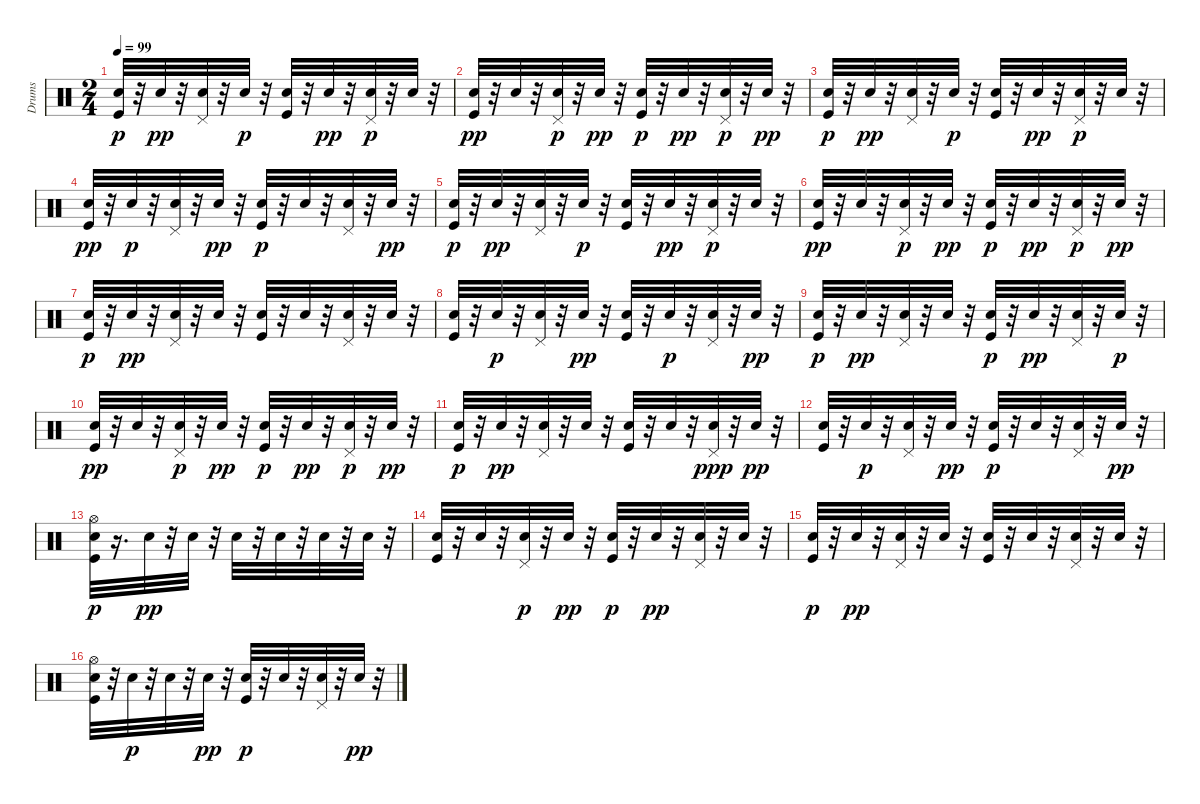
\track ("Drums" "Drums") {instrument percussion}
\staff {score}
\articulation defaults
\ts (2 4)
\tempo 99
\clef neutral
\ks c
("Hand Clap (hit)" "Kick (hit)").32{dy p} r.32 "Snare (hit) 2".32{dy pp} r.32 ("Pedal Hi-Hat (hit)" "Snare (hit) 2").32 r.32 "Snare (hit) 2".32{dy p} r.32 ("Hand Clap (hit)" "Kick (hit)").32 r.32 "Hand Clap (hit)".32{dy pp} r.32 ("Pedal Hi-Hat (hit)" "Snare (hit) 2").32{dy p} r.32 "Snare (hit) 2".32 r.32 |
("Kick (hit)" "Hand Clap (hit)").32{dy pp} r.32 "Snare (hit) 2".32 r.32 ("Pedal Hi-Hat (hit)" "Snare (hit) 2").32{dy p} r.32 "Snare (hit) 2".32{dy pp} r.32 ("Hand Clap (hit)" "Kick (hit)").32{dy p} r.32 "Snare (hit) 2".32{dy pp} r.32 ("Pedal Hi-Hat (hit)" "Snare (hit) 2").32{dy p} r.32 "Snare (hit) 2".32{dy pp} r.32 |
("Hand Clap (hit)" "Kick (hit)").32{dy p} r.32 "Snare (hit) 2".32{dy pp} r.32 ("Pedal Hi-Hat (hit)" "Snare (hit) 2").32 r.32 "Snare (hit) 2".32{dy p} r.32 ("Hand Clap (hit)" "Kick (hit)").32 r.32 "Hand Clap (hit)".32{dy pp} r.32 ("Pedal Hi-Hat (hit)" "Snare (hit) 2").32{dy p} r.32 "Snare (hit) 2".32 r.32 |
("Kick (hit)" "Hand Clap (hit)").32{dy pp} r.32 "Snare (hit) 2".32{dy p} r.32 ("Pedal Hi-Hat (hit)" "Snare (hit) 2").32 r.32 "Snare (hit) 2".32{dy pp} r.32 ("Hand Clap (hit)" "Kick (hit)").32{dy p} r.32 "Snare (hit) 2".32 r.32 ("Pedal Hi-Hat (hit)" "Snare (hit) 2").32 r.32 "Hand Clap (hit)".32{dy pp} r.32 |
("Hand Clap (hit)" "Kick (hit)").32{dy p} r.32 "Snare (hit) 2".32{dy pp} r.32 ("Pedal Hi-Hat (hit)" "Snare (hit) 2").32 r.32 "Snare (hit) 2".32{dy p} r.32 ("Hand Clap (hit)" "Kick (hit)").32 r.32 "Hand Clap (hit)".32{dy pp} r.32 ("Pedal Hi-Hat (hit)" "Snare (hit) 2").32{dy p} r.32 "Snare (hit) 2".32 r.32 |
("Kick (hit)" "Hand Clap (hit)").32{dy pp} r.32 "Snare (hit) 2".32 r.32 ("Pedal Hi-Hat (hit)" "Snare (hit) 2").32{dy p} r.32 "Snare (hit) 2".32{dy pp} r.32 ("Hand Clap (hit)" "Kick (hit)").32{dy p} r.32 "Snare (hit) 2".32{dy pp} r.32 ("Pedal Hi-Hat (hit)" "Snare (hit) 2").32{dy p} r.32 "Snare (hit) 2".32{dy pp} r.32 |
("Hand Clap (hit)" "Kick (hit)").32{dy p} r.32 "Snare (hit) 2".32{dy pp} r.32 ("Pedal Hi-Hat (hit)" "Snare (hit) 2").32 r.32 "Hand Clap (hit)".32 r.32 ("Kick (hit)" "Hand Clap (hit)").32 r.32 "Snare (hit) 2".32 r.32 ("Hand Clap (hit)" "Pedal Hi-Hat (hit)").32 r.32 "Hand Clap (hit)".32 r.32 |
("Kick (hit)" "Hand Clap (hit)").32 r.32 "Snare (hit) 2".32{dy p} r.32 ("Pedal Hi-Hat (hit)" "Snare (hit) 2").32 r.32 "Hand Clap (hit)".32{dy pp} r.32 ("Kick (hit)" "Snare (hit) 2").32 r.32 "Snare (hit) 2".32{dy p} r.32 ("Pedal Hi-Hat (hit)" "Snare (hit) 2").32 r.32 "Hand Clap (hit)".32{dy pp} r.32 |
("Hand Clap (hit)" "Kick (hit)").32{dy p} r.32 "Snare (hit) 2".32{dy pp} r.32 ("Pedal Hi-Hat (hit)" "Snare (hit) 2").32 r.32 "Hand Clap (hit)".32 r.32 ("Hand Clap (hit)" "Kick (hit)").32{dy p} r.32 "Snare (hit) 2".32{dy pp} r.32 ("Pedal Hi-Hat (hit)" "Hand Clap (hit)").32 r.32 "Snare (hit) 2".32{dy p} r.32 |
("Kick (hit)" "Hand Clap (hit)").32{dy pp} r.32 "Snare (hit) 2".32 r.32 ("Pedal Hi-Hat (hit)" "Snare (hit) 2").32{dy p} r.32 "Snare (hit) 2".32{dy pp} r.32 ("Hand Clap (hit)" "Kick (hit)").32{dy p} r.32 "Snare (hit) 2".32{dy pp} r.32 ("Pedal Hi-Hat (hit)" "Snare (hit) 2").32{dy p} r.32 "Snare (hit) 2".32{dy pp} r.32 |
("Hand Clap (hit)" "Kick (hit)").32{dy p} r.32 "Snare (hit) 2".32{dy pp} r.32 ("Pedal Hi-Hat (hit)" "Snare (hit) 2").32 r.32 "Hand Clap (hit)".32 r.32 ("Kick (hit)" "Hand Clap (hit)").32 r.32 "Snare (hit) 2".32 r.32 ("Hand Clap (hit)" "Pedal Hi-Hat (hit)").32{dy ppp} r.32 "Snare (hit) 2".32{dy pp} r.32 |
("Kick (hit)" "Hand Clap (hit)").32 r.32 "Snare (hit) 2".32{dy p} r.32 ("Pedal Hi-Hat (hit)" "Snare (hit) 2").32 r.32 "Snare (hit) 2".32{dy pp} r.32 ("Hand Clap (hit)" "Kick (hit)").32{dy p} r.32 "Snare (hit) 2".32 r.32 ("Pedal Hi-Hat (hit)" "Snare (hit) 2").32 r.32 "Snare (hit) 2".32{dy pp} r.32 |
("Hand Clap (hit)" "Hi-Hat (open)" "Kick (hit)").32{dy p} r.16{d} "Snare (hit) 2".32{dy pp} r.32 "Hand Clap (hit)".32 r.32 "Hand Clap (hit)".32 r.32 "Snare (hit) 2".32 r.32 "Hand Clap (hit)".32 r.32 "Hand Clap (hit)".32 r.32 |
("Kick (hit)" "Hand Clap (hit)").32 r.32 "Snare (hit) 2".32 r.32 ("Pedal Hi-Hat (hit)" "Snare (hit) 2").32{dy p} r.32 "Hand Clap (hit)".32{dy pp} r.32 ("Hand Clap (hit)" "Kick (hit)").32{dy p} r.32 "Snare (hit) 2".32{dy pp} r.32 ("Pedal Hi-Hat (hit)" "Hand Clap (hit)").32 r.32 "Snare (hit) 2".32 r.32 |
("Hand Clap (hit)" "Kick (hit)").32{dy p} r.32 "Snare (hit) 2".32{dy pp} r.32 ("Pedal Hi-Hat (hit)" "Snare (hit) 2").32 r.32 "Snare (hit) 2".32 r.32 ("Kick (hit)" "Hand Clap (hit)").32 r.32 "Snare (hit) 2".32 r.32 ("Hand Clap (hit)" "Pedal Hi-Hat (hit)").32 r.32 "Snare (hit) 2".32 r.32 |
("Hi-Hat (open)" "Kick (hit)" "Hand Clap (hit)").32 r.32 "Snare (hit) 2".32{dy p} r.32 "Snare (hit) 2".32 r.32 "Snare (hit) 2".32{dy pp} r.32 ("Hand Clap (hit)" "Kick (hit)").32{dy p} r.32 "Snare (hit) 2".32 r.32 ("Pedal Hi-Hat (hit)" "Snare (hit) 2").32 r.32 "Snare (hit) 2".32{dy pp} r.32
